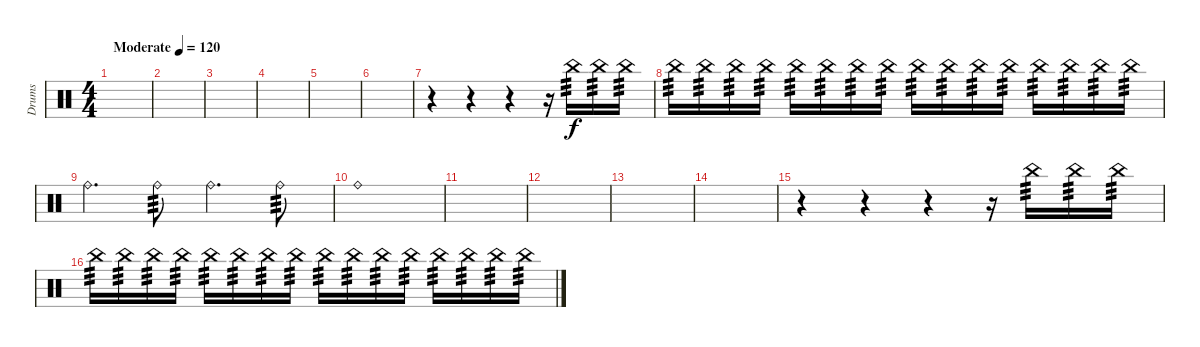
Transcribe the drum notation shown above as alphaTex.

\track ("Drums" "Drums") {instrument percussion}
\staff {score}
\articulation defaults
\ts (4 4)
\tempo (120 "Moderate")
\clef neutral
\ks c
|
|
|
|
|
|
r.4 r.4 r.4 r.16 "China (hit)".16{tp 3 volume 0} "China (hit)".16{tp 3 volume 1} "China (hit)".16{tp 3 volume 2} |
"China (hit)".16{tp 3 volume 3} "China (hit)".16{tp 3 volume 4} "China (hit)".16{tp 3 volume 5} "China (hit)".16{tp 3 volume 6} "China (hit)".16{tp 3 volume 7} "China (hit)".16{tp 3 volume 8} "China (hit)".16{tp 3 volume 9} "China (hit)".16{tp 3 volume 10} "China (hit)".16{tp 3 volume 11} "China (hit)".16{tp 3 volume 12} "China (hit)".16{tp 3 volume 13} "China (hit)".16{tp 3 volume 14} "China (hit)".16{tp 3 volume 15} "China (hit)".16{tp 3 volume 16} "China (hit)".16{tp 3 volume 16} "China (hit)".16{tp 3 volume 16} |
"Ride (bell)".4{d} "Ride (bell)".8{tp 3} "Ride (bell)".4{d} "Ride (bell)".8{tp 3} |
"Ride (bell)".1 |
|
|
|
|
r.4 r.4 r.4 r.16 "China (hit)".16{tp 3 volume 0} "China (hit)".16{tp 3 volume 1} "China (hit)".16{tp 3 volume 2} |
"China (hit)".16{tp 3 volume 3} "China (hit)".16{tp 3 volume 4} "China (hit)".16{tp 3 volume 5} "China (hit)".16{tp 3 volume 6} "China (hit)".16{tp 3 volume 7} "China (hit)".16{tp 3 volume 8} "China (hit)".16{tp 3 volume 9} "China (hit)".16{tp 3 volume 10} "China (hit)".16{tp 3 volume 11} "China (hit)".16{tp 3 volume 12} "China (hit)".16{tp 3 volume 13} "China (hit)".16{tp 3 volume 14} "China (hit)".16{tp 3 volume 15} "China (hit)".16{tp 3 volume 16} "China (hit)".16{tp 3 volume 16} "China (hit)".16{tp 3 volume 16}
